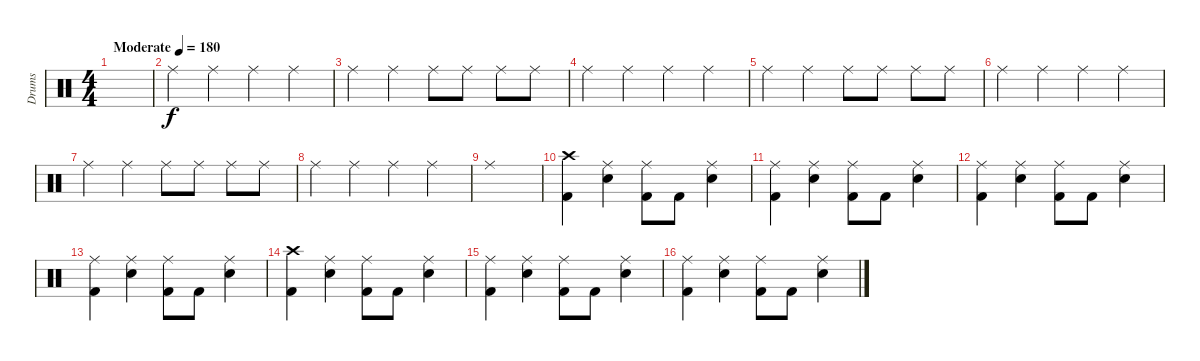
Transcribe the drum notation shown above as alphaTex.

\track ("Drums" "Drums") {instrument percussion}
\staff {score}
\articulation defaults
\ts (4 4)
\tempo (180 "Moderate")
\clef neutral
\ks c
|
"Ride (middle)".4 "Ride (middle)".4 "Ride (middle)".4 "Ride (middle)".4 |
"Ride (middle)".4 "Ride (middle)".4 "Ride (middle)".8 "Ride (middle)".8 "Ride (middle)".8 "Ride (middle)".8 |
"Ride (middle)".4 "Ride (middle)".4 "Ride (middle)".4 "Ride (middle)".4 |
"Ride (middle)".4 "Ride (middle)".4 "Ride (middle)".8 "Ride (middle)".8 "Ride (middle)".8 "Ride (middle)".8 |
"Ride (middle)".4 "Ride (middle)".4 "Ride (middle)".4 "Ride (middle)".4 |
"Ride (middle)".4 "Ride (middle)".4 "Ride (middle)".8 "Ride (middle)".8 "Ride (middle)".8 "Ride (middle)".8 |
"Ride (middle)".4 "Ride (middle)".4 "Ride (middle)".4 "Ride (middle)".4 |
"Ride (middle)".1 |
("Crash high (hit)" "Kick (hit) 2").4 ("Ride (middle)" "Electric Snare (hit)").4 ("Ride (middle)" "Kick (hit) 2").8 "Kick (hit) 2".8 ("Ride (middle)" "Electric Snare (hit)").4 |
("Ride (middle)" "Kick (hit) 2").4 ("Ride (middle)" "Electric Snare (hit)").4 ("Ride (middle)" "Kick (hit) 2").8 "Kick (hit) 2".8 ("Ride (middle)" "Electric Snare (hit)").4 |
("Ride (middle)" "Kick (hit) 2").4 ("Ride (middle)" "Electric Snare (hit)").4 ("Ride (middle)" "Kick (hit) 2").8 "Kick (hit) 2".8 ("Ride (middle)" "Electric Snare (hit)").4 |
("Ride (middle)" "Kick (hit) 2").4 ("Ride (middle)" "Electric Snare (hit)").4 ("Ride (middle)" "Kick (hit) 2").8 "Kick (hit) 2".8 ("Ride (middle)" "Electric Snare (hit)").4 |
("Crash high (hit)" "Kick (hit) 2").4 ("Ride (middle)" "Electric Snare (hit)").4 ("Ride (middle)" "Kick (hit) 2").8 "Kick (hit) 2".8 ("Ride (middle)" "Electric Snare (hit)").4 |
("Ride (middle)" "Kick (hit) 2").4 ("Ride (middle)" "Electric Snare (hit)").4 ("Ride (middle)" "Kick (hit) 2").8 "Kick (hit) 2".8 ("Ride (middle)" "Electric Snare (hit)").4 |
("Ride (middle)" "Kick (hit) 2").4 ("Ride (middle)" "Electric Snare (hit)").4 ("Ride (middle)" "Kick (hit) 2").8 "Kick (hit) 2".8 ("Ride (middle)" "Electric Snare (hit)").4
